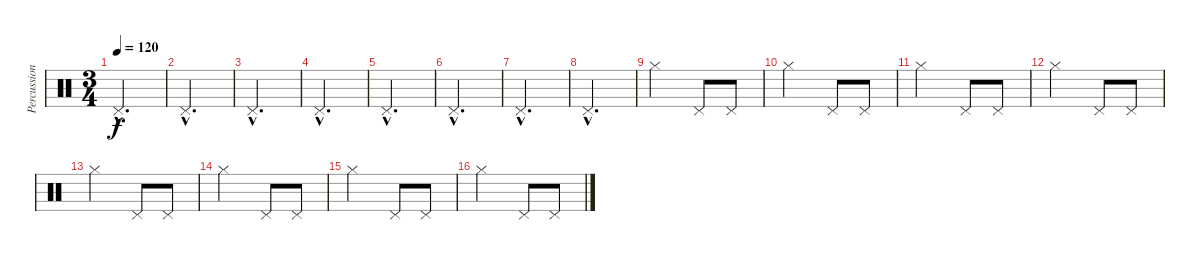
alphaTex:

\track ("Percussion" "Percussion") {instrument percussion}
\staff {score}
\articulation defaults
\ts (3 4)
\tempo 120
\clef neutral
\ks c "Pedal Hi-Hat (hit)"{hac}.2{d dy f}
|
"Pedal Hi-Hat (hit)"{hac}.2{d} |
"Pedal Hi-Hat (hit)"{hac}.2{d} |
"Pedal Hi-Hat (hit)"{hac}.2{d} |
"Pedal Hi-Hat (hit)"{hac}.2{d} |
"Pedal Hi-Hat (hit)"{hac}.2{d} |
"Pedal Hi-Hat (hit)"{hac}.2{d} |
"Pedal Hi-Hat (hit)"{hac}.2{d} |
"Hi-Hat (closed)".2 "Pedal Hi-Hat (hit)".8 "Pedal Hi-Hat (hit)".8 |
"Hi-Hat (closed)".2 "Pedal Hi-Hat (hit)".8 "Pedal Hi-Hat (hit)".8 |
"Hi-Hat (closed)".2 "Pedal Hi-Hat (hit)".8 "Pedal Hi-Hat (hit)".8 |
"Hi-Hat (closed)".2 "Pedal Hi-Hat (hit)".8 "Pedal Hi-Hat (hit)".8 |
"Hi-Hat (closed)".2 "Pedal Hi-Hat (hit)".8 "Pedal Hi-Hat (hit)".8 |
"Hi-Hat (closed)".2 "Pedal Hi-Hat (hit)".8 "Pedal Hi-Hat (hit)".8 |
"Hi-Hat (closed)".2 "Pedal Hi-Hat (hit)".8 "Pedal Hi-Hat (hit)".8 |
"Hi-Hat (closed)".2 "Pedal Hi-Hat (hit)".8 "Pedal Hi-Hat (hit)".8
